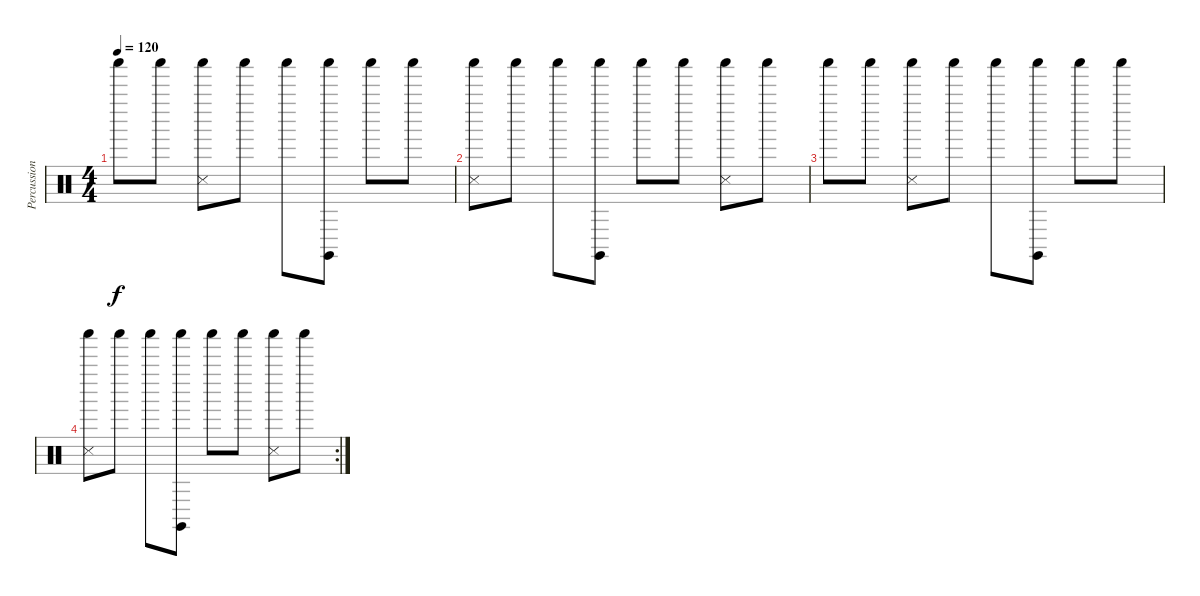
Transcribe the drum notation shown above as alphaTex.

\track ("Percussion" "Percussion") {instrument percussion}
\staff {score}
\articulation defaults
\ts (4 4)
\tempo 120
\clef neutral
\ks c "Shaker (hit)".8{dy f} "Shaker (hit)".8
("Snare (side stick) 3" "Shaker (hit)").8 "Shaker (hit)".8 "Shaker (hit)".8 ("Claves (hit)" "Shaker (hit)").8 "Shaker (hit)".8 "Shaker (hit)".8 |
("Snare (side stick) 3" "Shaker (hit)").8 "Shaker (hit)".8 "Shaker (hit)".8 ("Claves (hit)" "Shaker (hit)").8 "Shaker (hit)".8 "Shaker (hit)".8 ("Snare (side stick) 3" "Shaker (hit)").8 "Shaker (hit)".8 |
"Shaker (hit)".8 "Shaker (hit)".8 ("Snare (side stick) 3" "Shaker (hit)").8 "Shaker (hit)".8 "Shaker (hit)".8 ("Claves (hit)" "Shaker (hit)").8 "Shaker (hit)".8 "Shaker (hit)".8 |
\rc 2
("Snare (side stick) 3" "Shaker (hit)").8 "Shaker (hit)".8 "Shaker (hit)".8 ("Claves (hit)" "Shaker (hit)").8 "Shaker (hit)".8 "Shaker (hit)".8 ("Snare (side stick) 3" "Shaker (hit)").8 "Shaker (hit)".8
